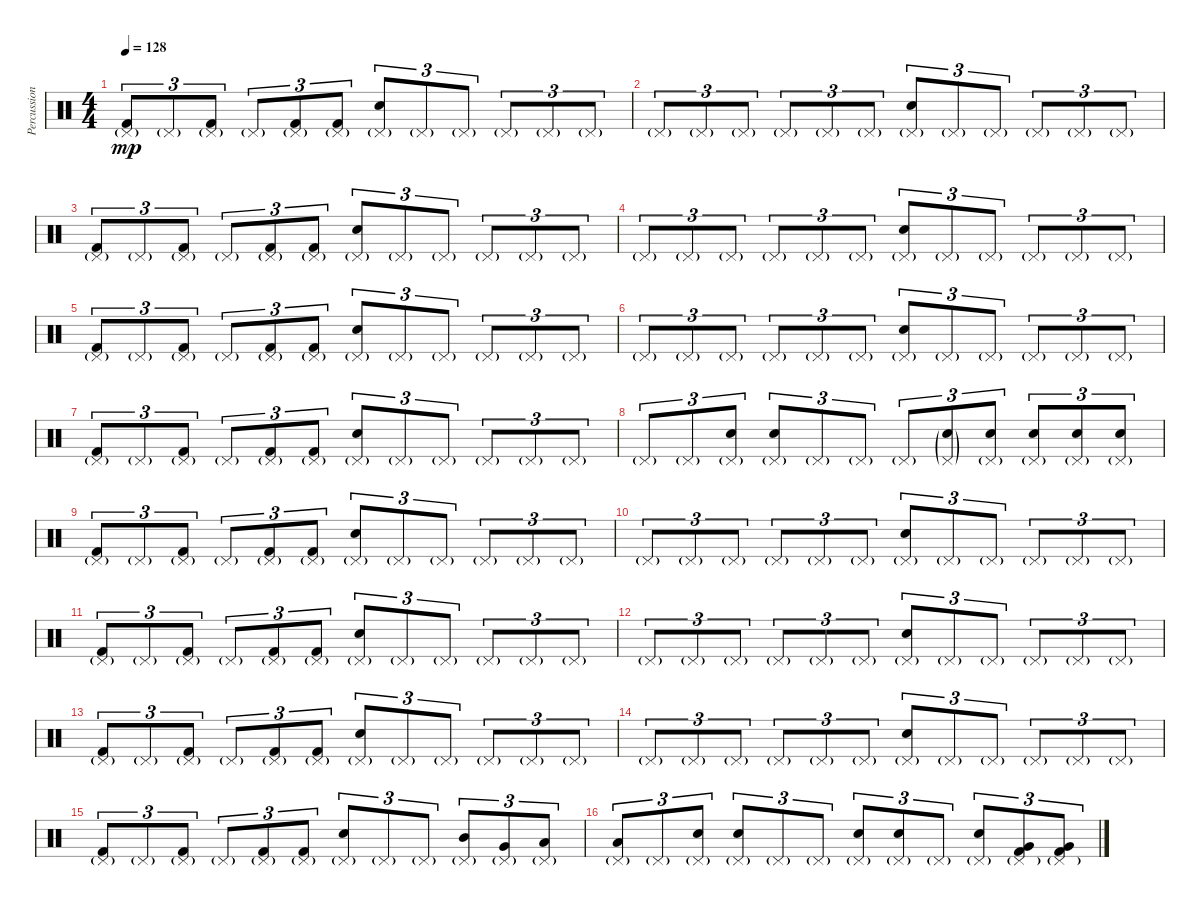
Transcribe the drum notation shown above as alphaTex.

\track ("Percussions" "Percussion") {instrument percussion}
\staff {score}
\articulation defaults
\ts (4 4)
\tempo 128
\clef neutral
\ks c
("Pedal Hi-Hat (hit)"{g} "Kick (hit) 2").8{tu (3 2) dy mp} "Pedal Hi-Hat (hit)"{g}.8{tu (3 2)} ("Pedal Hi-Hat (hit)"{g} "Kick (hit) 2").8{tu (3 2)} "Pedal Hi-Hat (hit)"{g}.8{tu (3 2)} ("Pedal Hi-Hat (hit)"{g} "Kick (hit) 2").8{tu (3 2)} ("Pedal Hi-Hat (hit)"{g} "Kick (hit) 2").8{tu (3 2)} ("Pedal Hi-Hat (hit)"{g} "Electric Snare (hit)").8{tu (3 2)} "Pedal Hi-Hat (hit)"{g}.8{tu (3 2)} "Pedal Hi-Hat (hit)"{g}.8{tu (3 2)} "Pedal Hi-Hat (hit)"{g}.8{tu (3 2)} "Pedal Hi-Hat (hit)"{g}.8{tu (3 2)} "Pedal Hi-Hat (hit)"{g}.8{tu (3 2)} |
"Pedal Hi-Hat (hit)"{g}.8{tu (3 2)} "Pedal Hi-Hat (hit)"{g}.8{tu (3 2)} "Pedal Hi-Hat (hit)"{g}.8{tu (3 2)} "Pedal Hi-Hat (hit)"{g}.8{tu (3 2)} "Pedal Hi-Hat (hit)"{g}.8{tu (3 2)} "Pedal Hi-Hat (hit)"{g}.8{tu (3 2)} ("Pedal Hi-Hat (hit)"{g} "Electric Snare (hit)").8{tu (3 2)} "Pedal Hi-Hat (hit)"{g}.8{tu (3 2)} "Pedal Hi-Hat (hit)"{g}.8{tu (3 2)} "Pedal Hi-Hat (hit)"{g}.8{tu (3 2)} "Pedal Hi-Hat (hit)"{g}.8{tu (3 2)} "Pedal Hi-Hat (hit)"{g}.8{tu (3 2)} |
("Pedal Hi-Hat (hit)"{g} "Kick (hit) 2").8{tu (3 2)} "Pedal Hi-Hat (hit)"{g}.8{tu (3 2)} ("Pedal Hi-Hat (hit)"{g} "Kick (hit) 2").8{tu (3 2)} "Pedal Hi-Hat (hit)"{g}.8{tu (3 2)} ("Pedal Hi-Hat (hit)"{g} "Kick (hit) 2").8{tu (3 2)} ("Pedal Hi-Hat (hit)"{g} "Kick (hit) 2").8{tu (3 2)} ("Pedal Hi-Hat (hit)"{g} "Electric Snare (hit)").8{tu (3 2)} "Pedal Hi-Hat (hit)"{g}.8{tu (3 2)} "Pedal Hi-Hat (hit)"{g}.8{tu (3 2)} "Pedal Hi-Hat (hit)"{g}.8{tu (3 2)} "Pedal Hi-Hat (hit)"{g}.8{tu (3 2)} "Pedal Hi-Hat (hit)"{g}.8{tu (3 2)} |
"Pedal Hi-Hat (hit)"{g}.8{tu (3 2)} "Pedal Hi-Hat (hit)"{g}.8{tu (3 2)} "Pedal Hi-Hat (hit)"{g}.8{tu (3 2)} "Pedal Hi-Hat (hit)"{g}.8{tu (3 2)} "Pedal Hi-Hat (hit)"{g}.8{tu (3 2)} "Pedal Hi-Hat (hit)"{g}.8{tu (3 2)} ("Pedal Hi-Hat (hit)"{g} "Electric Snare (hit)").8{tu (3 2)} "Pedal Hi-Hat (hit)"{g}.8{tu (3 2)} "Pedal Hi-Hat (hit)"{g}.8{tu (3 2)} "Pedal Hi-Hat (hit)"{g}.8{tu (3 2)} "Pedal Hi-Hat (hit)"{g}.8{tu (3 2)} "Pedal Hi-Hat (hit)"{g}.8{tu (3 2)} |
("Pedal Hi-Hat (hit)"{g} "Kick (hit) 2").8{tu (3 2)} "Pedal Hi-Hat (hit)"{g}.8{tu (3 2)} ("Pedal Hi-Hat (hit)"{g} "Kick (hit) 2").8{tu (3 2)} "Pedal Hi-Hat (hit)"{g}.8{tu (3 2)} ("Pedal Hi-Hat (hit)"{g} "Kick (hit) 2").8{tu (3 2)} ("Pedal Hi-Hat (hit)"{g} "Kick (hit) 2").8{tu (3 2)} ("Pedal Hi-Hat (hit)"{g} "Electric Snare (hit)").8{tu (3 2)} "Pedal Hi-Hat (hit)"{g}.8{tu (3 2)} "Pedal Hi-Hat (hit)"{g}.8{tu (3 2)} "Pedal Hi-Hat (hit)"{g}.8{tu (3 2)} "Pedal Hi-Hat (hit)"{g}.8{tu (3 2)} "Pedal Hi-Hat (hit)"{g}.8{tu (3 2)} |
"Pedal Hi-Hat (hit)"{g}.8{tu (3 2)} "Pedal Hi-Hat (hit)"{g}.8{tu (3 2)} "Pedal Hi-Hat (hit)"{g}.8{tu (3 2)} "Pedal Hi-Hat (hit)"{g}.8{tu (3 2)} "Pedal Hi-Hat (hit)"{g}.8{tu (3 2)} "Pedal Hi-Hat (hit)"{g}.8{tu (3 2)} ("Pedal Hi-Hat (hit)"{g} "Electric Snare (hit)").8{tu (3 2)} "Pedal Hi-Hat (hit)"{g}.8{tu (3 2)} "Pedal Hi-Hat (hit)"{g}.8{tu (3 2)} "Pedal Hi-Hat (hit)"{g}.8{tu (3 2)} "Pedal Hi-Hat (hit)"{g}.8{tu (3 2)} "Pedal Hi-Hat (hit)"{g}.8{tu (3 2)} |
("Pedal Hi-Hat (hit)"{g} "Kick (hit) 2").8{tu (3 2)} "Pedal Hi-Hat (hit)"{g}.8{tu (3 2)} ("Pedal Hi-Hat (hit)"{g} "Kick (hit) 2").8{tu (3 2)} "Pedal Hi-Hat (hit)"{g}.8{tu (3 2)} ("Pedal Hi-Hat (hit)"{g} "Kick (hit) 2").8{tu (3 2)} ("Pedal Hi-Hat (hit)"{g} "Kick (hit) 2").8{tu (3 2)} ("Pedal Hi-Hat (hit)"{g} "Electric Snare (hit)").8{tu (3 2)} "Pedal Hi-Hat (hit)"{g}.8{tu (3 2)} "Pedal Hi-Hat (hit)"{g}.8{tu (3 2)} "Pedal Hi-Hat (hit)"{g}.8{tu (3 2)} "Pedal Hi-Hat (hit)"{g}.8{tu (3 2)} "Pedal Hi-Hat (hit)"{g}.8{tu (3 2)} |
"Pedal Hi-Hat (hit)"{g}.8{tu (3 2)} "Pedal Hi-Hat (hit)"{g}.8{tu (3 2)} ("Pedal Hi-Hat (hit)"{g} "Electric Snare (hit)").8{tu (3 2)} ("Pedal Hi-Hat (hit)"{g} "Electric Snare (hit)").8{tu (3 2)} "Pedal Hi-Hat (hit)"{g}.8{tu (3 2)} "Pedal Hi-Hat (hit)"{g}.8{tu (3 2)} "Pedal Hi-Hat (hit)"{g}.8{tu (3 2)} ("Pedal Hi-Hat (hit)"{g} "Electric Snare (hit)"{g}).8{tu (3 2)} ("Pedal Hi-Hat (hit)"{g} "Electric Snare (hit)").8{tu (3 2)} ("Pedal Hi-Hat (hit)"{g} "Electric Snare (hit)").8{tu (3 2)} ("Pedal Hi-Hat (hit)"{g} "Electric Snare (hit)").8{tu (3 2)} ("Pedal Hi-Hat (hit)"{g} "Electric Snare (hit)").8{tu (3 2)} |
("Pedal Hi-Hat (hit)"{g} "Kick (hit) 2").8{tu (3 2)} "Pedal Hi-Hat (hit)"{g}.8{tu (3 2)} ("Pedal Hi-Hat (hit)"{g} "Kick (hit) 2").8{tu (3 2)} "Pedal Hi-Hat (hit)"{g}.8{tu (3 2)} ("Pedal Hi-Hat (hit)"{g} "Kick (hit) 2").8{tu (3 2)} ("Pedal Hi-Hat (hit)"{g} "Kick (hit) 2").8{tu (3 2)} ("Pedal Hi-Hat (hit)"{g} "Electric Snare (hit)").8{tu (3 2)} "Pedal Hi-Hat (hit)"{g}.8{tu (3 2)} "Pedal Hi-Hat (hit)"{g}.8{tu (3 2)} "Pedal Hi-Hat (hit)"{g}.8{tu (3 2)} "Pedal Hi-Hat (hit)"{g}.8{tu (3 2)} "Pedal Hi-Hat (hit)"{g}.8{tu (3 2)} |
"Pedal Hi-Hat (hit)"{g}.8{tu (3 2)} "Pedal Hi-Hat (hit)"{g}.8{tu (3 2)} "Pedal Hi-Hat (hit)"{g}.8{tu (3 2)} "Pedal Hi-Hat (hit)"{g}.8{tu (3 2)} "Pedal Hi-Hat (hit)"{g}.8{tu (3 2)} "Pedal Hi-Hat (hit)"{g}.8{tu (3 2)} ("Pedal Hi-Hat (hit)"{g} "Electric Snare (hit)").8{tu (3 2)} "Pedal Hi-Hat (hit)"{g}.8{tu (3 2)} "Pedal Hi-Hat (hit)"{g}.8{tu (3 2)} "Pedal Hi-Hat (hit)"{g}.8{tu (3 2)} "Pedal Hi-Hat (hit)"{g}.8{tu (3 2)} "Pedal Hi-Hat (hit)"{g}.8{tu (3 2)} |
("Pedal Hi-Hat (hit)"{g} "Kick (hit) 2").8{tu (3 2)} "Pedal Hi-Hat (hit)"{g}.8{tu (3 2)} ("Pedal Hi-Hat (hit)"{g} "Kick (hit) 2").8{tu (3 2)} "Pedal Hi-Hat (hit)"{g}.8{tu (3 2)} ("Pedal Hi-Hat (hit)"{g} "Kick (hit) 2").8{tu (3 2)} ("Pedal Hi-Hat (hit)"{g} "Kick (hit) 2").8{tu (3 2)} ("Pedal Hi-Hat (hit)"{g} "Electric Snare (hit)").8{tu (3 2)} "Pedal Hi-Hat (hit)"{g}.8{tu (3 2)} "Pedal Hi-Hat (hit)"{g}.8{tu (3 2)} "Pedal Hi-Hat (hit)"{g}.8{tu (3 2)} "Pedal Hi-Hat (hit)"{g}.8{tu (3 2)} "Pedal Hi-Hat (hit)"{g}.8{tu (3 2)} |
"Pedal Hi-Hat (hit)"{g}.8{tu (3 2)} "Pedal Hi-Hat (hit)"{g}.8{tu (3 2)} "Pedal Hi-Hat (hit)"{g}.8{tu (3 2)} "Pedal Hi-Hat (hit)"{g}.8{tu (3 2)} "Pedal Hi-Hat (hit)"{g}.8{tu (3 2)} "Pedal Hi-Hat (hit)"{g}.8{tu (3 2)} ("Pedal Hi-Hat (hit)"{g} "Electric Snare (hit)").8{tu (3 2)} "Pedal Hi-Hat (hit)"{g}.8{tu (3 2)} "Pedal Hi-Hat (hit)"{g}.8{tu (3 2)} "Pedal Hi-Hat (hit)"{g}.8{tu (3 2)} "Pedal Hi-Hat (hit)"{g}.8{tu (3 2)} "Pedal Hi-Hat (hit)"{g}.8{tu (3 2)} |
("Pedal Hi-Hat (hit)"{g} "Kick (hit) 2").8{tu (3 2)} "Pedal Hi-Hat (hit)"{g}.8{tu (3 2)} ("Pedal Hi-Hat (hit)"{g} "Kick (hit) 2").8{tu (3 2)} "Pedal Hi-Hat (hit)"{g}.8{tu (3 2)} ("Pedal Hi-Hat (hit)"{g} "Kick (hit) 2").8{tu (3 2)} ("Pedal Hi-Hat (hit)"{g} "Kick (hit) 2").8{tu (3 2)} ("Pedal Hi-Hat (hit)"{g} "Electric Snare (hit)").8{tu (3 2)} "Pedal Hi-Hat (hit)"{g}.8{tu (3 2)} "Pedal Hi-Hat (hit)"{g}.8{tu (3 2)} "Pedal Hi-Hat (hit)"{g}.8{tu (3 2)} "Pedal Hi-Hat (hit)"{g}.8{tu (3 2)} "Pedal Hi-Hat (hit)"{g}.8{tu (3 2)} |
"Pedal Hi-Hat (hit)"{g}.8{tu (3 2)} "Pedal Hi-Hat (hit)"{g}.8{tu (3 2)} "Pedal Hi-Hat (hit)"{g}.8{tu (3 2)} "Pedal Hi-Hat (hit)"{g}.8{tu (3 2)} "Pedal Hi-Hat (hit)"{g}.8{tu (3 2)} "Pedal Hi-Hat (hit)"{g}.8{tu (3 2)} ("Pedal Hi-Hat (hit)"{g} "Electric Snare (hit)").8{tu (3 2)} "Pedal Hi-Hat (hit)"{g}.8{tu (3 2)} "Pedal Hi-Hat (hit)"{g}.8{tu (3 2)} "Pedal Hi-Hat (hit)"{g}.8{tu (3 2)} "Pedal Hi-Hat (hit)"{g}.8{tu (3 2)} "Pedal Hi-Hat (hit)"{g}.8{tu (3 2)} |
("Pedal Hi-Hat (hit)"{g} "Kick (hit) 2").8{tu (3 2)} "Pedal Hi-Hat (hit)"{g}.8{tu (3 2)} ("Pedal Hi-Hat (hit)"{g} "Kick (hit) 2").8{tu (3 2)} "Pedal Hi-Hat (hit)"{g}.8{tu (3 2)} ("Pedal Hi-Hat (hit)"{g} "Kick (hit) 2").8{tu (3 2)} ("Pedal Hi-Hat (hit)"{g} "Kick (hit) 2").8{tu (3 2)} ("Pedal Hi-Hat (hit)"{g} "Electric Snare (hit)").8{tu (3 2)} "Pedal Hi-Hat (hit)"{g}.8{tu (3 2)} "Pedal Hi-Hat (hit)"{g}.8{tu (3 2)} ("Pedal Hi-Hat (hit)"{g} "Mid Tom (hit)").8{tu (3 2)} ("Pedal Hi-Hat (hit)"{g} "Very Low Tom (hit)").8{tu (3 2)} ("Pedal Hi-Hat (hit)"{g} "Low Tom (hit)").8{tu (3 2)} |
("Pedal Hi-Hat (hit)"{g} "Low Floor Tom (hit)").8{tu (3 2)} "Pedal Hi-Hat (hit)"{g}.8{tu (3 2)} ("Pedal Hi-Hat (hit)"{g} "Electric Snare (hit)").8{tu (3 2)} ("Pedal Hi-Hat (hit)"{g} "Electric Snare (hit)").8{tu (3 2)} "Pedal Hi-Hat (hit)"{g}.8{tu (3 2)} "Pedal Hi-Hat (hit)"{g}.8{tu (3 2)} ("Pedal Hi-Hat (hit)"{g} "Electric Snare (hit)").8{tu (3 2)} ("Pedal Hi-Hat (hit)"{g} "Electric Snare (hit)").8{tu (3 2)} "Pedal Hi-Hat (hit)"{g}.8{tu (3 2)} ("Pedal Hi-Hat (hit)"{g} "Electric Snare (hit)").8{tu (3 2)} ("Pedal Hi-Hat (hit)"{g} "Very Low Tom (hit)" "Kick (hit) 2").8{tu (3 2)} ("Pedal Hi-Hat (hit)"{g} "Very Low Tom (hit)" "Kick (hit) 2").8{tu (3 2)}
